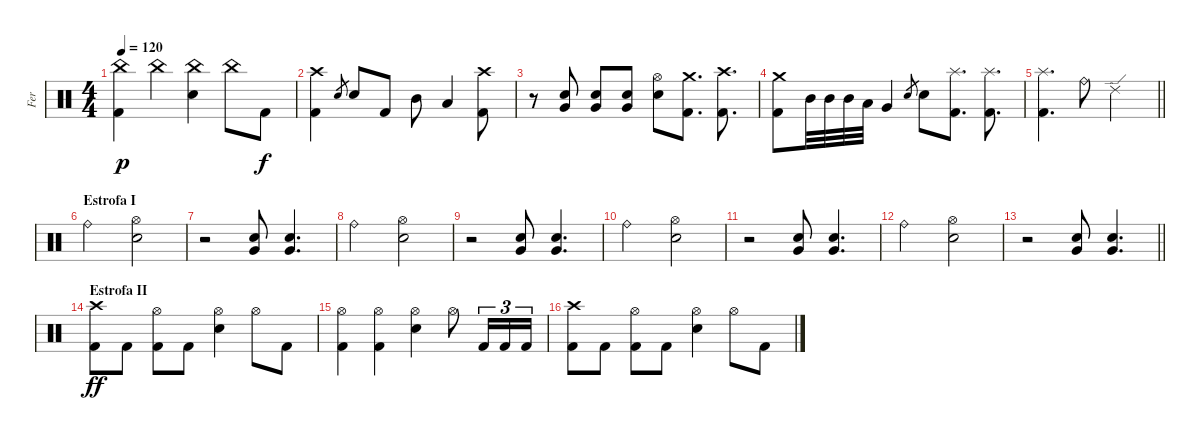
\track ("Fer" "Fer") {instrument percussion}
\staff {score}
\articulation defaults
\ts (4 4)
\tempo 120
\clef neutral
\ks c
("China (hit)" "Kick (hit) 2").4{dy p} "China (hit)".4 ("China (hit)" "Snare (hit) 2").4 "China (hit)".8 "Kick (hit) 2".8{dy f} |
("Crash high (hit)" "Kick (hit) 2").4 "Snare (hit) 2".8{gr} "Snare (hit) 2".8 "Kick (hit) 2".8 "Mid Tom (hit)".8 "Low Tom (hit)".4 ("Crash high (hit)" "Kick (hit) 2").8 |
r.8 ("Snare (hit) 2" "Very Low Tom (hit)").8 ("Snare (hit) 2" "Very Low Tom (hit)").8 ("Snare (hit) 2" "Very Low Tom (hit)").8 ("Hi-Hat (open)" "Snare (hit) 2").8 ("Crash medium (hit)" "Kick (hit) 2").8{d} ("Crash high (hit)" "Kick (hit) 2").8{d} |
("Crash medium (hit)" "Kick (hit) 2").8 "Mid Tom (hit)".32 "Mid Tom (hit)".32 "Mid Tom (hit)".32 "Low Tom (hit)".32 "Very Low Tom (hit)".4 "Snare (hit) 2".8{gr} "Snare (hit) 2".8 ("Splash (hit)" "Kick (hit) 2").8{d} ("Splash (hit)" "Kick (hit) 2").8{d} |
\barLineRight lightlight
("Splash (hit)" "Kick (hit) 2").4{d} "Ride (bell)".8 "Ride (edge) 2".2 |
\section ("" "Estrofa I")
"Ride (bell)".2 ("Hi-Hat (open)" "Snare (hit) 2").2 |
r.2 ("Snare (hit) 2" "Very Low Tom (hit)").8 ("Snare (hit) 2" "Very Low Tom (hit)").4{d} |
"Ride (bell)".2 ("Hi-Hat (open)" "Snare (hit) 2").2 |
r.2 ("Snare (hit) 2" "Very Low Tom (hit)").8 ("Snare (hit) 2" "Very Low Tom (hit)").4{d} |
"Ride (bell)".2 ("Hi-Hat (open)" "Snare (hit) 2").2 |
r.2 ("Snare (hit) 2" "Very Low Tom (hit)").8 ("Snare (hit) 2" "Very Low Tom (hit)").4{d} |
"Ride (bell)".2 ("Hi-Hat (open)" "Snare (hit) 2").2 |
\barLineRight lightlight
r.2 ("Snare (hit) 2" "Very Low Tom (hit)").8 ("Snare (hit) 2" "Very Low Tom (hit)").4{d} |
\section ("" "Estrofa II")
("Crash high (hit)" "Kick (hit) 2").8{dy ff} "Kick (hit) 2".8 ("Hi-Hat (open)" "Kick (hit) 2").8 "Kick (hit) 2".8 ("Hi-Hat (open)" "Snare (hit) 2").4 "Hi-Hat (open)".8 "Kick (hit) 2".8 |
("Hi-Hat (open)" "Kick (hit) 2").4 ("Hi-Hat (open)" "Kick (hit) 2").4 ("Hi-Hat (open)" "Snare (hit) 2").4 "Hi-Hat (open)".8 "Kick (hit) 2".16{tu (3 2)} "Kick (hit) 2".16{tu (3 2)} "Kick (hit) 2".16{tu (3 2)} |
("Crash high (hit)" "Kick (hit) 2").8 "Kick (hit) 2".8 ("Hi-Hat (open)" "Kick (hit) 2").8 "Kick (hit) 2".8 ("Hi-Hat (open)" "Snare (hit) 2").4 "Hi-Hat (open)".8 "Kick (hit) 2".8
